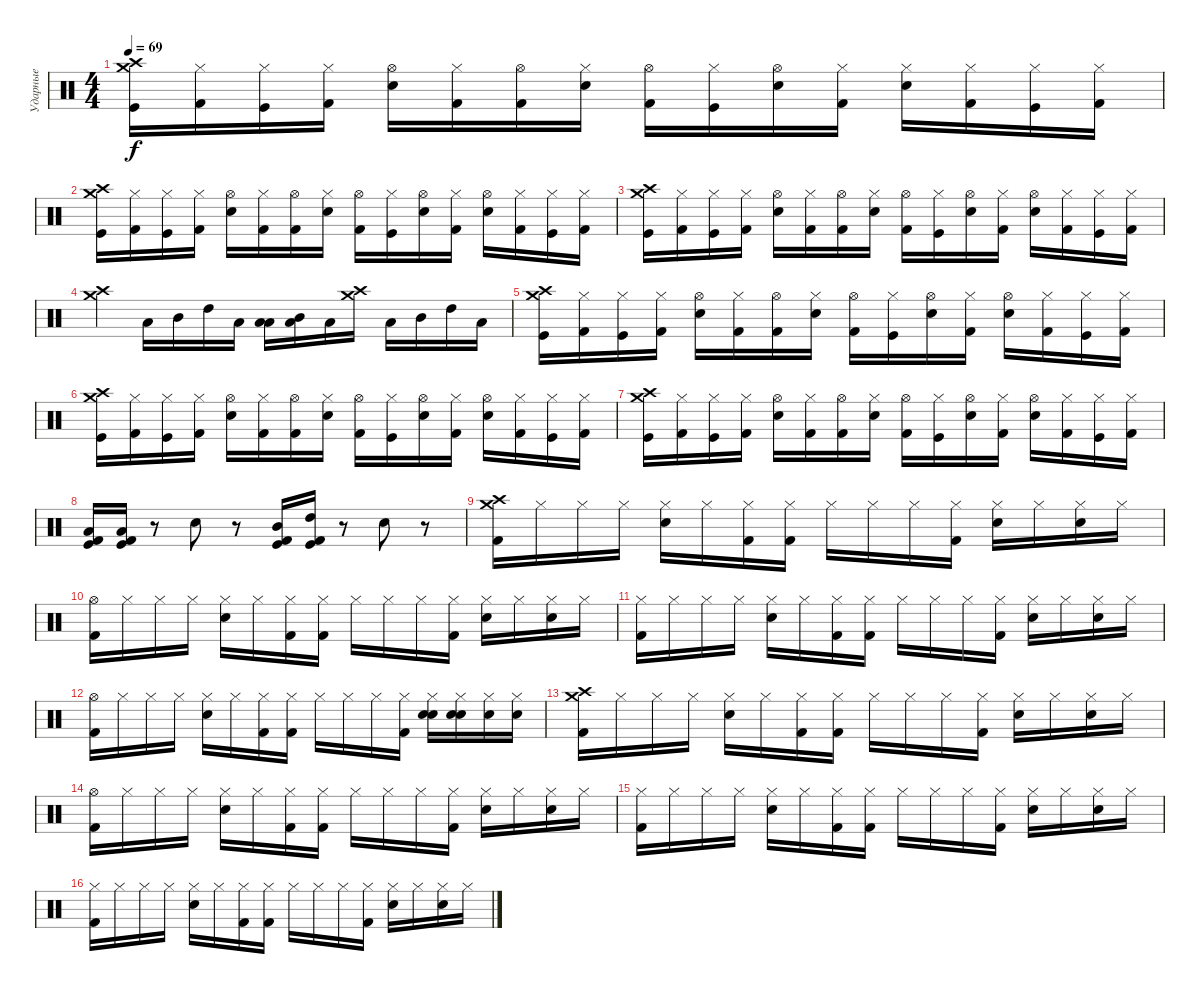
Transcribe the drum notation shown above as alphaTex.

\track ("Ударные" "Ударные") {instrument percussion}
\staff {score}
\articulation defaults
\ts (4 4)
\tempo 69
\clef neutral
\ks c
("Crash high (hit)" "Crash medium (hit)" "Kick (hit)").16{dy f} ("Hi-Hat (closed)" "Kick (hit) 2").16 ("Hi-Hat (closed)" "Kick (hit)").16 ("Hi-Hat (closed)" "Kick (hit) 2").16 ("Hi-Hat (open)" "Snare (hit) 2").16 ("Hi-Hat (closed)" "Kick (hit) 2").16 ("Hi-Hat (open)" "Kick (hit) 2").16 ("Hi-Hat (closed)" "Snare (hit) 2").16 ("Hi-Hat (open)" "Kick (hit) 2").16 ("Hi-Hat (closed)" "Kick (hit)").16 ("Hi-Hat (open)" "Snare (hit) 2").16 ("Hi-Hat (closed)" "Kick (hit) 2").16 ("Hi-Hat (closed)" "Snare (hit) 2").16 ("Hi-Hat (closed)" "Kick (hit) 2").16 ("Hi-Hat (closed)" "Kick (hit)").16 ("Hi-Hat (closed)" "Kick (hit) 2").16 |
("Crash high (hit)" "Crash medium (hit)" "Kick (hit)").16 ("Hi-Hat (closed)" "Kick (hit) 2").16 ("Hi-Hat (closed)" "Kick (hit)").16 ("Hi-Hat (closed)" "Kick (hit) 2").16 ("Hi-Hat (open)" "Snare (hit) 2").16 ("Hi-Hat (closed)" "Kick (hit) 2").16 ("Hi-Hat (open)" "Kick (hit) 2").16 ("Hi-Hat (closed)" "Snare (hit) 2").16 ("Hi-Hat (open)" "Kick (hit) 2").16 ("Hi-Hat (closed)" "Kick (hit)").16 ("Hi-Hat (open)" "Snare (hit) 2").16 ("Hi-Hat (closed)" "Kick (hit) 2").16 ("Hi-Hat (open)" "Snare (hit) 2").16 ("Hi-Hat (closed)" "Kick (hit) 2").16 ("Hi-Hat (closed)" "Kick (hit)").16 ("Hi-Hat (closed)" "Kick (hit) 2").16 |
("Crash high (hit)" "Crash medium (hit)" "Kick (hit)").16 ("Hi-Hat (closed)" "Kick (hit) 2").16 ("Hi-Hat (closed)" "Kick (hit)").16 ("Hi-Hat (closed)" "Kick (hit) 2").16 ("Hi-Hat (open)" "Snare (hit) 2").16 ("Hi-Hat (closed)" "Kick (hit) 2").16 ("Hi-Hat (open)" "Kick (hit) 2").16 ("Hi-Hat (closed)" "Snare (hit) 2").16 ("Hi-Hat (open)" "Kick (hit) 2").16 ("Hi-Hat (closed)" "Kick (hit)").16 ("Hi-Hat (open)" "Snare (hit) 2").16 ("Hi-Hat (closed)" "Kick (hit) 2").16 ("Hi-Hat (open)" "Snare (hit) 2").16 ("Hi-Hat (closed)" "Kick (hit) 2").16 ("Hi-Hat (closed)" "Kick (hit)").16 ("Hi-Hat (closed)" "Kick (hit) 2").16 |
("Crash high (hit)" "Crash medium (hit)").4 "Low Floor Tom (hit)".16 "Mid Tom (hit)".16 "High Tom (hit)".16 "Low Floor Tom (hit)".16 ("Low Tom (hit)" "Low Floor Tom (hit)").16 ("Low Tom (hit)" "Mid Tom (hit)").16 "Low Tom (hit)".16 ("Crash high (hit)" "Crash medium (hit)").16 "Low Floor Tom (hit)".16 "Mid Tom (hit)".16 "High Tom (hit)".16 "Low Tom (hit)".16 |
("Crash high (hit)" "Crash medium (hit)" "Kick (hit)").16 ("Hi-Hat (closed)" "Kick (hit) 2").16 ("Hi-Hat (closed)" "Kick (hit)").16 ("Hi-Hat (closed)" "Kick (hit) 2").16 ("Hi-Hat (open)" "Snare (hit) 2").16 ("Hi-Hat (closed)" "Kick (hit) 2").16 ("Hi-Hat (open)" "Kick (hit) 2").16 ("Hi-Hat (closed)" "Snare (hit) 2").16 ("Hi-Hat (open)" "Kick (hit) 2").16 ("Hi-Hat (closed)" "Kick (hit)").16 ("Hi-Hat (open)" "Snare (hit) 2").16 ("Hi-Hat (closed)" "Kick (hit) 2").16 ("Hi-Hat (open)" "Snare (hit) 2").16 ("Hi-Hat (closed)" "Kick (hit) 2").16 ("Hi-Hat (closed)" "Kick (hit)").16 ("Hi-Hat (closed)" "Kick (hit) 2").16 |
("Crash high (hit)" "Crash medium (hit)" "Kick (hit)").16 ("Hi-Hat (closed)" "Kick (hit) 2").16 ("Hi-Hat (closed)" "Kick (hit)").16 ("Hi-Hat (closed)" "Kick (hit) 2").16 ("Hi-Hat (open)" "Snare (hit) 2").16 ("Hi-Hat (closed)" "Kick (hit) 2").16 ("Hi-Hat (open)" "Kick (hit) 2").16 ("Hi-Hat (closed)" "Snare (hit) 2").16 ("Hi-Hat (open)" "Kick (hit) 2").16 ("Hi-Hat (closed)" "Kick (hit)").16 ("Hi-Hat (open)" "Snare (hit) 2").16 ("Hi-Hat (closed)" "Kick (hit) 2").16 ("Hi-Hat (open)" "Snare (hit) 2").16 ("Hi-Hat (closed)" "Kick (hit) 2").16 ("Hi-Hat (closed)" "Kick (hit)").16 ("Hi-Hat (closed)" "Kick (hit) 2").16 |
("Crash high (hit)" "Crash medium (hit)" "Kick (hit)").16 ("Hi-Hat (closed)" "Kick (hit) 2").16 ("Hi-Hat (closed)" "Kick (hit)").16 ("Hi-Hat (closed)" "Kick (hit) 2").16 ("Hi-Hat (open)" "Snare (hit) 2").16 ("Hi-Hat (closed)" "Kick (hit) 2").16 ("Hi-Hat (open)" "Kick (hit) 2").16 ("Hi-Hat (closed)" "Snare (hit) 2").16 ("Hi-Hat (open)" "Kick (hit) 2").16 ("Hi-Hat (closed)" "Kick (hit)").16 ("Hi-Hat (open)" "Snare (hit) 2").16 ("Hi-Hat (closed)" "Kick (hit) 2").16 ("Hi-Hat (open)" "Snare (hit) 2").16 ("Hi-Hat (closed)" "Kick (hit) 2").16 ("Hi-Hat (closed)" "Kick (hit)").16 ("Hi-Hat (closed)" "Kick (hit) 2").16 |
("Low Floor Tom (hit)" "Kick (hit)" "Kick (hit) 2").16 ("Low Tom (hit)" "Kick (hit)" "Kick (hit) 2").16 r.8 "Snare (hit) 2".8 r.8 ("Mid Tom (hit)" "Kick (hit)" "Kick (hit) 2").16 ("High Tom (hit)" "Kick (hit)" "Kick (hit) 2").16 r.8 "Snare (hit) 2".8 r.8 |
("Crash high (hit)" "Crash medium (hit)" "Kick (hit) 2").16 "Hi-Hat (closed)".16 "Hi-Hat (closed)".16 "Hi-Hat (closed)".16 ("Hi-Hat (closed)" "Snare (hit) 2").16 "Hi-Hat (closed)".16 ("Hi-Hat (closed)" "Kick (hit) 2").16 ("Hi-Hat (closed)" "Kick (hit) 2").16 "Hi-Hat (closed)".16 "Hi-Hat (closed)".16 "Hi-Hat (closed)".16 ("Hi-Hat (closed)" "Kick (hit) 2").16 ("Hi-Hat (closed)" "Snare (hit) 2").16 "Hi-Hat (closed)".16 ("Hi-Hat (closed)" "Snare (hit) 2").16 "Hi-Hat (closed)".16 |
("Hi-Hat (open)" "Kick (hit) 2").16 "Hi-Hat (closed)".16 "Hi-Hat (closed)".16 "Hi-Hat (closed)".16 ("Hi-Hat (closed)" "Snare (hit) 2").16 "Hi-Hat (closed)".16 ("Hi-Hat (closed)" "Kick (hit) 2").16 ("Hi-Hat (closed)" "Kick (hit) 2").16 "Hi-Hat (closed)".16 "Hi-Hat (closed)".16 "Hi-Hat (closed)".16 ("Hi-Hat (closed)" "Kick (hit) 2").16 ("Hi-Hat (closed)" "Snare (hit) 2").16 "Hi-Hat (closed)".16 ("Hi-Hat (closed)" "Snare (hit) 2").16 "Hi-Hat (closed)".16 |
("Hi-Hat (closed)" "Kick (hit) 2").16 "Hi-Hat (closed)".16 "Hi-Hat (closed)".16 "Hi-Hat (closed)".16 ("Hi-Hat (closed)" "Snare (hit) 2").16 "Hi-Hat (closed)".16 ("Hi-Hat (closed)" "Kick (hit) 2").16 ("Hi-Hat (closed)" "Kick (hit) 2").16 "Hi-Hat (closed)".16 "Hi-Hat (closed)".16 "Hi-Hat (closed)".16 ("Hi-Hat (closed)" "Kick (hit) 2").16 ("Hi-Hat (closed)" "Snare (hit) 2").16 "Hi-Hat (closed)".16 ("Hi-Hat (closed)" "Snare (hit) 2").16 "Hi-Hat (closed)".16 |
("Hi-Hat (open)" "Kick (hit) 2").16 "Hi-Hat (closed)".16 "Hi-Hat (closed)".16 "Hi-Hat (closed)".16 ("Hi-Hat (closed)" "Snare (hit) 2").16 "Hi-Hat (closed)".16 ("Hi-Hat (closed)" "Kick (hit) 2").16 ("Hi-Hat (closed)" "Kick (hit) 2").16 "Hi-Hat (closed)".16 "Hi-Hat (closed)".16 "Hi-Hat (closed)".16 ("Hi-Hat (closed)" "Kick (hit) 2").16 ("Hi-Hat (closed)" "Snare (hit) 2" "Snare (hit) 2").16 ("Hi-Hat (closed)" "Snare (hit) 2" "Snare (hit) 2").16 ("Hi-Hat (closed)" "Snare (hit) 2").16 ("Hi-Hat (closed)" "Snare (hit) 2").16 |
("Crash high (hit)" "Crash medium (hit)" "Kick (hit) 2").16 "Hi-Hat (closed)".16 "Hi-Hat (closed)".16 "Hi-Hat (closed)".16 ("Hi-Hat (closed)" "Snare (hit) 2").16 "Hi-Hat (closed)".16 ("Hi-Hat (closed)" "Kick (hit) 2").16 ("Hi-Hat (closed)" "Kick (hit) 2").16 "Hi-Hat (closed)".16 "Hi-Hat (closed)".16 "Hi-Hat (closed)".16 ("Hi-Hat (closed)" "Kick (hit) 2").16 ("Hi-Hat (closed)" "Snare (hit) 2").16 "Hi-Hat (closed)".16 ("Hi-Hat (closed)" "Snare (hit) 2").16 "Hi-Hat (closed)".16 |
("Hi-Hat (open)" "Kick (hit) 2").16 "Hi-Hat (closed)".16 "Hi-Hat (closed)".16 "Hi-Hat (closed)".16 ("Hi-Hat (closed)" "Snare (hit) 2").16 "Hi-Hat (closed)".16 ("Hi-Hat (closed)" "Kick (hit) 2").16 ("Hi-Hat (closed)" "Kick (hit) 2").16 "Hi-Hat (closed)".16 "Hi-Hat (closed)".16 "Hi-Hat (closed)".16 ("Hi-Hat (closed)" "Kick (hit) 2").16 ("Hi-Hat (closed)" "Snare (hit) 2").16 "Hi-Hat (closed)".16 ("Hi-Hat (closed)" "Snare (hit) 2").16 "Hi-Hat (closed)".16 |
("Hi-Hat (closed)" "Kick (hit) 2").16 "Hi-Hat (closed)".16 "Hi-Hat (closed)".16 "Hi-Hat (closed)".16 ("Hi-Hat (closed)" "Snare (hit) 2").16 "Hi-Hat (closed)".16 ("Hi-Hat (closed)" "Kick (hit) 2").16 ("Hi-Hat (closed)" "Kick (hit) 2").16 "Hi-Hat (closed)".16 "Hi-Hat (closed)".16 "Hi-Hat (closed)".16 ("Hi-Hat (closed)" "Kick (hit) 2").16 ("Hi-Hat (closed)" "Snare (hit) 2").16 "Hi-Hat (closed)".16 ("Hi-Hat (closed)" "Snare (hit) 2").16 "Hi-Hat (closed)".16 |
("Hi-Hat (closed)" "Kick (hit) 2").16 "Hi-Hat (closed)".16 "Hi-Hat (closed)".16 "Hi-Hat (closed)".16 ("Hi-Hat (closed)" "Snare (hit) 2").16 "Hi-Hat (closed)".16 ("Hi-Hat (closed)" "Kick (hit) 2").16 ("Hi-Hat (closed)" "Kick (hit) 2").16 "Hi-Hat (closed)".16 "Hi-Hat (closed)".16 "Hi-Hat (closed)".16 ("Hi-Hat (closed)" "Kick (hit) 2").16 ("Hi-Hat (closed)" "Snare (hit) 2").16 "Hi-Hat (closed)".16 ("Hi-Hat (closed)" "Snare (hit) 2").16 "Hi-Hat (closed)".16
